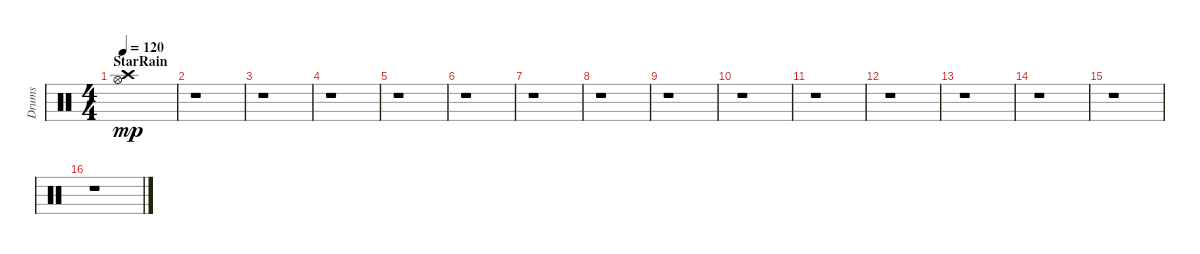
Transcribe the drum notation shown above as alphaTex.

\track ("Drums" "Drums") {instrument percussion}
\staff {score}
\articulation defaults
\ts (4 4)
\section ("" "StarRain")
\tempo 120
\clef neutral
\ks c
("Hi-Hat (open)" "Crash high (hit)").1{dy mp} |
r.1 |
r.1 |
r.1 |
r.1 |
r.1 |
r.1 |
r.1 |
r.1 |
r.1 |
r.1 |
r.1 |
r.1 |
r.1 |
r.1 |
r.1
